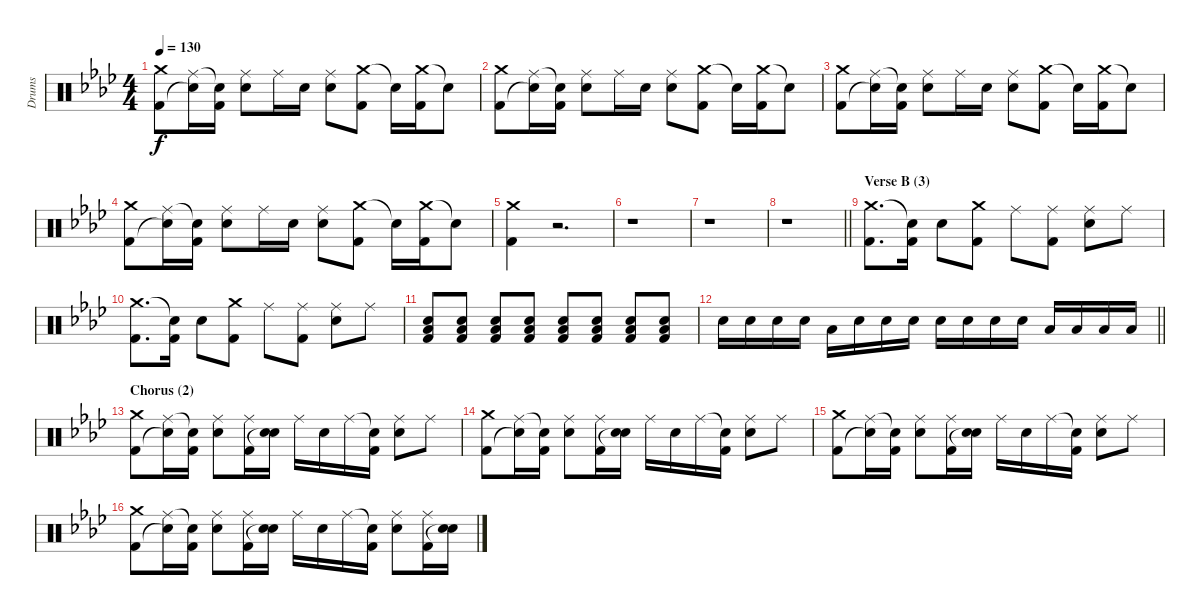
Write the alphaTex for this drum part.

\track ("Drums" "Drums") {instrument percussion}
\staff {score}
\articulation defaults
\ts (4 4)
\tempo 130
\clef neutral
\ks fminor
("Crash medium (hit)" "Kick (hit) 2").8{dy f} ("Ride (middle)" "Snare (hit)"{t}).16 ("Snare (hit)"{t} "Kick (hit) 2").16 ("Ride (middle)" "Electric Snare (hit)").8 "Ride (middle)".16 "Electric Snare (hit)".16 ("Ride (middle)" "Electric Snare (hit)").8 ("Crash medium (hit)" "Kick (hit) 2").8 "Snare (hit)"{t}.16 ("Crash medium (hit)" "Kick (hit) 2").16 "Snare (hit)"{t}.8 |
("Crash medium (hit)" "Kick (hit) 2").8 ("Ride (middle)" "Snare (hit)"{t}).16 ("Snare (hit)"{t} "Kick (hit) 2").16 ("Ride (middle)" "Electric Snare (hit)").8 "Ride (middle)".16 "Electric Snare (hit)".16 ("Ride (middle)" "Electric Snare (hit)").8 ("Crash medium (hit)" "Kick (hit) 2").8 "Snare (hit)"{t}.16 ("Crash medium (hit)" "Kick (hit) 2").16 "Snare (hit)"{t}.8 |
("Crash medium (hit)" "Kick (hit) 2").8 ("Ride (middle)" "Snare (hit)"{t}).16 ("Snare (hit)"{t} "Kick (hit) 2").16 ("Ride (middle)" "Electric Snare (hit)").8 "Ride (middle)".16 "Electric Snare (hit)".16 ("Ride (middle)" "Electric Snare (hit)").8 ("Crash medium (hit)" "Kick (hit) 2").8 "Snare (hit)"{t}.16 ("Crash medium (hit)" "Kick (hit) 2").16 "Snare (hit)"{t}.8 |
("Crash medium (hit)" "Kick (hit) 2").8 ("Ride (middle)" "Snare (hit)"{t}).16 ("Snare (hit)"{t} "Kick (hit) 2").16 ("Ride (middle)" "Electric Snare (hit)").8 "Ride (middle)".16 "Electric Snare (hit)".16 ("Ride (middle)" "Electric Snare (hit)").8 ("Crash medium (hit)" "Kick (hit) 2").8 "Snare (hit)"{t}.16 ("Crash medium (hit)" "Kick (hit) 2").16 "Snare (hit)"{t}.8 |
("Crash medium (hit)" "Kick (hit) 2").4 r.2{d} |
r.1 |
r.1 |
\barLineRight lightlight
r.1 |
\section ("" "Verse B (3)")
("Crash medium (hit)" "Kick (hit) 2").8{d} ("Snare (hit)"{t} "Kick (hit) 2").16 "Electric Snare (hit)".8 ("Crash medium (hit)" "Kick (hit) 2").8 "Ride (middle)".8 ("Ride (middle)" "Kick (hit) 2").8 ("Ride (middle)" "Electric Snare (hit)").8 "Ride (middle)".8 |
("Crash medium (hit)" "Kick (hit) 2").8{d} ("Snare (hit)"{t} "Kick (hit) 2").16 "Electric Snare (hit)".8 ("Crash medium (hit)" "Kick (hit) 2").8 "Ride (middle)".8 ("Ride (middle)" "Kick (hit) 2").8 ("Ride (middle)" "Electric Snare (hit)").8 "Ride (middle)".8 |
("Electric Snare (hit)" "Low Floor Tom (hit)" "Kick (hit) 2").8 ("Electric Snare (hit)" "Low Floor Tom (hit)" "Kick (hit) 2").8 ("Electric Snare (hit)" "Low Floor Tom (hit)" "Kick (hit) 2").8 ("Electric Snare (hit)" "Low Floor Tom (hit)" "Kick (hit) 2").8 ("Electric Snare (hit)" "Low Floor Tom (hit)" "Kick (hit) 2").8 ("Electric Snare (hit)" "Low Floor Tom (hit)" "Kick (hit) 2").8 ("Electric Snare (hit)" "Low Floor Tom (hit)" "Kick (hit) 2").8 ("Electric Snare (hit)" "Low Floor Tom (hit)" "Kick (hit) 2").8 |
\barLineRight lightlight "Electric Snare (hit)".16 "Electric Snare (hit)".16 "Electric Snare (hit)".16 "Electric Snare (hit)".16 "Low Floor Tom (hit)".16 "Electric Snare (hit)".16 "Electric Snare (hit)".16 "Electric Snare (hit)".16 "Electric Snare (hit)".16 "Electric Snare (hit)".16 "Electric Snare (hit)".16 "Electric Snare (hit)".16 "Low Floor Tom (hit)".16 "Low Floor Tom (hit)".16 "Low Floor Tom (hit)".16 "Low Floor Tom (hit)".16
|
\section ("" "Chorus (2)")
("Crash medium (hit)" "Kick (hit) 2").8 ("Ride (middle)" "Snare (hit)"{t}).16 ("Snare (hit)"{t} "Kick (hit) 2").16 ("Ride (middle)" "Electric Snare (hit)").8 ("Ride (middle)" "Kick (hit) 2").16 ("Electric Snare (hit)" "Snare (hit)"{t}).16 "Ride (middle)".16 "Electric Snare (hit)".16 "Ride (middle)".16 ("Snare (hit)"{t} "Kick (hit) 2").16 ("Ride (middle)" "Electric Snare (hit)").8 "Ride (middle)".8 |
("Crash medium (hit)" "Kick (hit) 2").8 ("Ride (middle)" "Snare (hit)"{t}).16 ("Snare (hit)"{t} "Kick (hit) 2").16 ("Ride (middle)" "Electric Snare (hit)").8 ("Ride (middle)" "Kick (hit) 2").16 ("Electric Snare (hit)" "Snare (hit)"{t}).16 "Ride (middle)".16 "Electric Snare (hit)".16 "Ride (middle)".16 ("Snare (hit)"{t} "Kick (hit) 2").16 ("Ride (middle)" "Electric Snare (hit)").8 "Ride (middle)".8 |
("Crash medium (hit)" "Kick (hit) 2").8 ("Ride (middle)" "Snare (hit)"{t}).16 ("Snare (hit)"{t} "Kick (hit) 2").16 ("Ride (middle)" "Electric Snare (hit)").8 ("Ride (middle)" "Kick (hit) 2").16 ("Electric Snare (hit)" "Snare (hit)"{t}).16 "Ride (middle)".16 "Electric Snare (hit)".16 "Ride (middle)".16 ("Snare (hit)"{t} "Kick (hit) 2").16 ("Ride (middle)" "Electric Snare (hit)").8 "Ride (middle)".8 |
("Crash medium (hit)" "Kick (hit) 2").8 ("Ride (middle)" "Snare (hit)"{t}).16 ("Snare (hit)"{t} "Kick (hit) 2").16 ("Ride (middle)" "Electric Snare (hit)").8 ("Ride (middle)" "Kick (hit) 2").16 ("Electric Snare (hit)" "Snare (hit)"{t}).16 "Ride (middle)".16 "Electric Snare (hit)".16 "Ride (middle)".16 ("Snare (hit)"{t} "Kick (hit) 2").16 ("Ride (middle)" "Electric Snare (hit)").8 ("Ride (middle)" "Kick (hit) 2").16 ("Electric Snare (hit)" "Snare (hit)"{t}).16
